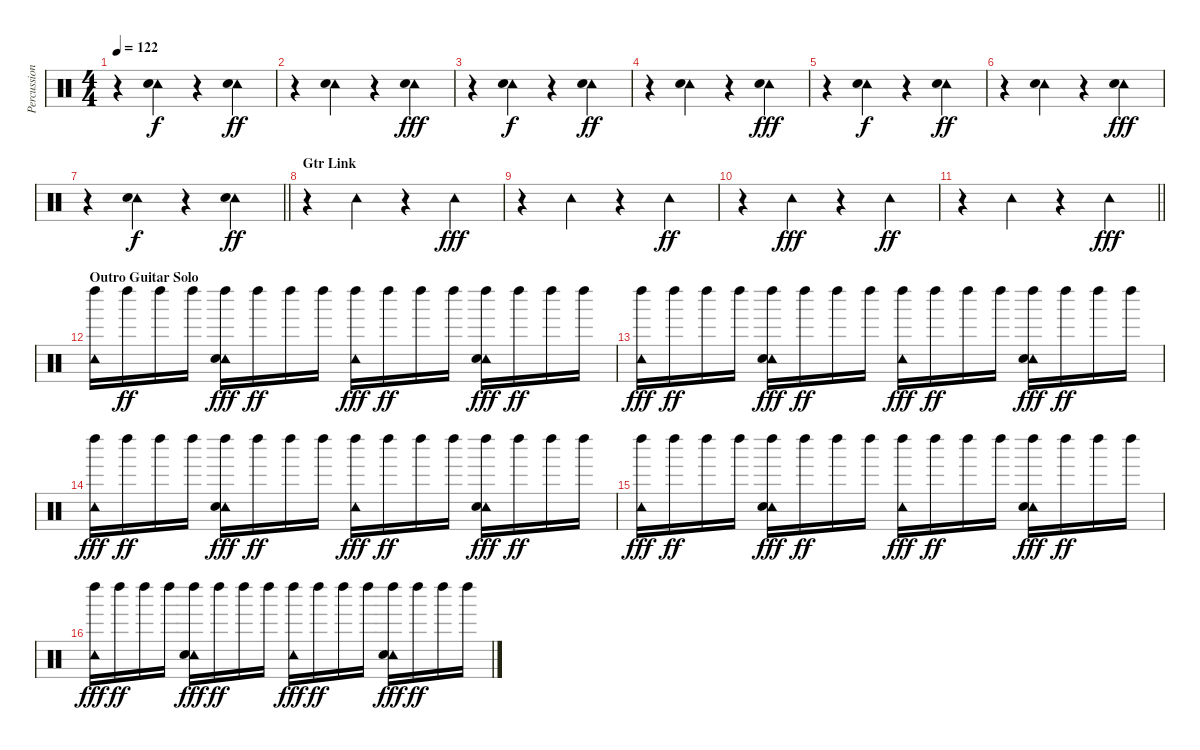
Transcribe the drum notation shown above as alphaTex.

\track ("Percussion" "Percussion") {instrument percussion}
\staff {score}
\articulation defaults
\ts (4 4)
\tempo 122
\clef neutral
\ks c
r.4{dy fff} ("Tambourine (hit)" "Hand Clap (hit)").4{dy f} r.4 ("Tambourine (hit)" "Hand Clap (hit)").4{dy ff} |
r.4 ("Tambourine (hit)" "Hand Clap (hit)").4 r.4 ("Tambourine (hit)" "Hand Clap (hit)").4{dy fff} |
r.4 ("Tambourine (hit)" "Hand Clap (hit)").4{dy f} r.4 ("Tambourine (hit)" "Hand Clap (hit)").4{dy ff} |
r.4 ("Tambourine (hit)" "Hand Clap (hit)").4 r.4 ("Tambourine (hit)" "Hand Clap (hit)").4{dy fff} |
r.4 ("Tambourine (hit)" "Hand Clap (hit)").4{dy f} r.4 ("Tambourine (hit)" "Hand Clap (hit)").4{dy ff} |
r.4 ("Tambourine (hit)" "Hand Clap (hit)").4 r.4 ("Tambourine (hit)" "Hand Clap (hit)").4{dy fff} |
\barLineRight lightlight
r.4 ("Tambourine (hit)" "Hand Clap (hit)").4{dy f} r.4 ("Tambourine (hit)" "Hand Clap (hit)").4{dy ff} |
\section ("" "Gtr Link")
r.4 "Tambourine (hit)".4 r.4 "Tambourine (hit)".4{dy fff} |
r.4 "Tambourine (hit)".4 r.4 "Tambourine (hit)".4{dy ff} |
r.4 "Tambourine (hit)".4{dy fff} r.4 "Tambourine (hit)".4{dy ff} |
\barLineRight lightlight
r.4 "Tambourine (hit)".4 r.4 "Tambourine (hit)".4{dy fff} |
\section ("" "Outro Guitar Solo")
("Left Maraca (hit)" "Tambourine (hit)").16 "Left Maraca (hit)".16{dy ff} "Left Maraca (hit)".16 "Left Maraca (hit)".16 ("Left Maraca (hit)" "Tambourine (hit)" "Hand Clap (hit)").16{dy fff} "Left Maraca (hit)".16{dy ff} "Left Maraca (hit)".16 "Left Maraca (hit)".16 ("Left Maraca (hit)" "Tambourine (hit)").16{dy fff} "Left Maraca (hit)".16{dy ff} "Left Maraca (hit)".16 "Left Maraca (hit)".16 ("Left Maraca (hit)" "Tambourine (hit)" "Hand Clap (hit)").16{dy fff} "Left Maraca (hit)".16{dy ff} "Left Maraca (hit)".16 "Left Maraca (hit)".16 |
("Left Maraca (hit)" "Tambourine (hit)").16{dy fff} "Left Maraca (hit)".16{dy ff} "Left Maraca (hit)".16 "Left Maraca (hit)".16 ("Left Maraca (hit)" "Tambourine (hit)" "Hand Clap (hit)").16{dy fff} "Left Maraca (hit)".16{dy ff} "Left Maraca (hit)".16 "Left Maraca (hit)".16 ("Left Maraca (hit)" "Tambourine (hit)").16{dy fff} "Left Maraca (hit)".16{dy ff} "Left Maraca (hit)".16 "Left Maraca (hit)".16 ("Left Maraca (hit)" "Tambourine (hit)" "Hand Clap (hit)").16{dy fff} "Left Maraca (hit)".16{dy ff} "Left Maraca (hit)".16 "Left Maraca (hit)".16 |
("Left Maraca (hit)" "Tambourine (hit)").16{dy fff} "Left Maraca (hit)".16{dy ff} "Left Maraca (hit)".16 "Left Maraca (hit)".16 ("Left Maraca (hit)" "Tambourine (hit)" "Hand Clap (hit)").16{dy fff} "Left Maraca (hit)".16{dy ff} "Left Maraca (hit)".16 "Left Maraca (hit)".16 ("Left Maraca (hit)" "Tambourine (hit)").16{dy fff} "Left Maraca (hit)".16{dy ff} "Left Maraca (hit)".16 "Left Maraca (hit)".16 ("Left Maraca (hit)" "Tambourine (hit)" "Hand Clap (hit)").16{dy fff} "Left Maraca (hit)".16{dy ff} "Left Maraca (hit)".16 "Left Maraca (hit)".16 |
("Left Maraca (hit)" "Tambourine (hit)").16{dy fff} "Left Maraca (hit)".16{dy ff} "Left Maraca (hit)".16 "Left Maraca (hit)".16 ("Left Maraca (hit)" "Tambourine (hit)" "Hand Clap (hit)").16{dy fff} "Left Maraca (hit)".16{dy ff} "Left Maraca (hit)".16 "Left Maraca (hit)".16 ("Left Maraca (hit)" "Tambourine (hit)").16{dy fff} "Left Maraca (hit)".16{dy ff} "Left Maraca (hit)".16 "Left Maraca (hit)".16 ("Left Maraca (hit)" "Tambourine (hit)" "Hand Clap (hit)").16{dy fff} "Left Maraca (hit)".16{dy ff} "Left Maraca (hit)".16 "Left Maraca (hit)".16 |
("Left Maraca (hit)" "Tambourine (hit)").16{dy fff} "Left Maraca (hit)".16{dy ff} "Left Maraca (hit)".16 "Left Maraca (hit)".16 ("Left Maraca (hit)" "Tambourine (hit)" "Hand Clap (hit)").16{dy fff} "Left Maraca (hit)".16{dy ff} "Left Maraca (hit)".16 "Left Maraca (hit)".16 ("Left Maraca (hit)" "Tambourine (hit)").16{dy fff} "Left Maraca (hit)".16{dy ff} "Left Maraca (hit)".16 "Left Maraca (hit)".16 ("Left Maraca (hit)" "Tambourine (hit)" "Hand Clap (hit)").16{dy fff} "Left Maraca (hit)".16{dy ff} "Left Maraca (hit)".16 "Left Maraca (hit)".16
